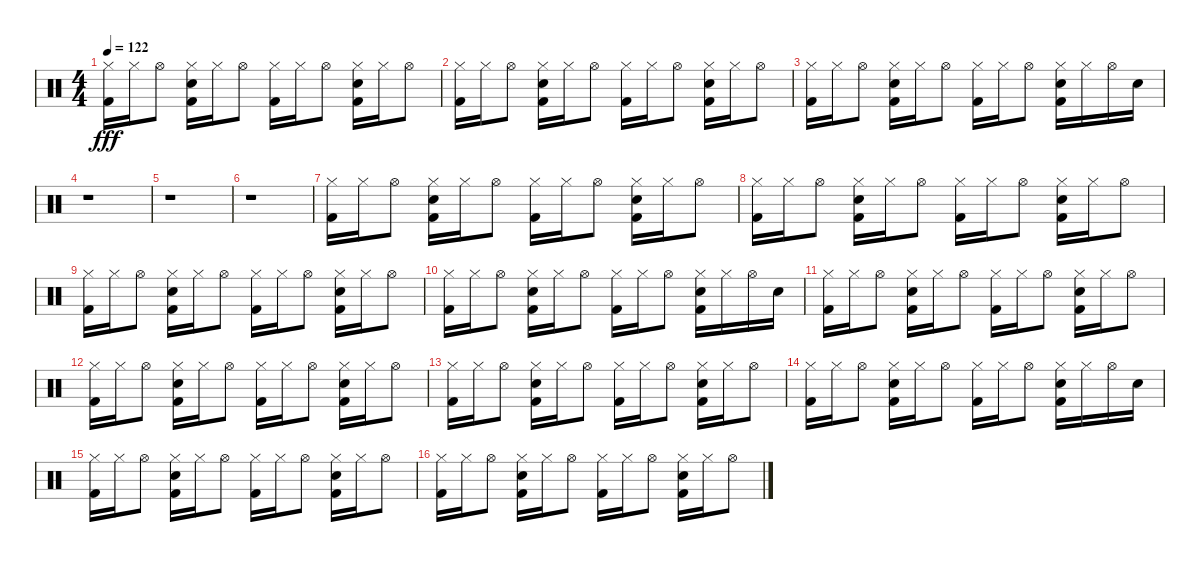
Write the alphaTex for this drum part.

\track "" {instrument percussion}
\staff {score}
\articulation defaults
\ts (4 4)
\tempo 122
\clef neutral
\ks c
("Kick (hit) 2" "Hi-Hat (closed)").16{dy fff} "Hi-Hat (closed)".16 "Hi-Hat (open)".8 ("Kick (hit) 2" "Snare (hit) 2" "Hi-Hat (closed)").16 "Hi-Hat (closed)".16 "Hi-Hat (open)".8 ("Kick (hit) 2" "Hi-Hat (closed)").16 "Hi-Hat (closed)".16 "Hi-Hat (open)".8 ("Kick (hit) 2" "Snare (hit) 2" "Hi-Hat (closed)").16 "Hi-Hat (closed)".16 "Hi-Hat (open)".8 |
("Kick (hit) 2" "Hi-Hat (closed)").16 "Hi-Hat (closed)".16 "Hi-Hat (open)".8 ("Kick (hit) 2" "Snare (hit) 2" "Hi-Hat (closed)").16 "Hi-Hat (closed)".16 "Hi-Hat (open)".8 ("Kick (hit) 2" "Hi-Hat (closed)").16 "Hi-Hat (closed)".16 "Hi-Hat (open)".8 ("Kick (hit) 2" "Snare (hit) 2" "Hi-Hat (closed)").16 "Hi-Hat (closed)".16 "Hi-Hat (open)".8 |
("Kick (hit) 2" "Hi-Hat (closed)").16 "Hi-Hat (closed)".16 "Hi-Hat (open)".8 ("Kick (hit) 2" "Snare (hit) 2" "Hi-Hat (closed)").16 "Hi-Hat (closed)".16 "Hi-Hat (open)".8 ("Kick (hit) 2" "Hi-Hat (closed)").16 "Hi-Hat (closed)".16 "Hi-Hat (open)".8 ("Kick (hit) 2" "Snare (hit) 2" "Hi-Hat (closed)").16 "Hi-Hat (closed)".16 "Hi-Hat (open)".16 "Snare (hit) 2".16 |
r.1 |
r.1 |
r.1 |
("Kick (hit) 2" "Hi-Hat (closed)").16 "Hi-Hat (closed)".16 "Hi-Hat (open)".8 ("Kick (hit) 2" "Snare (hit) 2" "Hi-Hat (closed)").16 "Hi-Hat (closed)".16 "Hi-Hat (open)".8 ("Kick (hit) 2" "Hi-Hat (closed)").16 "Hi-Hat (closed)".16 "Hi-Hat (open)".8 ("Kick (hit) 2" "Snare (hit) 2" "Hi-Hat (closed)").16 "Hi-Hat (closed)".16 "Hi-Hat (open)".8 |
("Kick (hit) 2" "Hi-Hat (closed)").16 "Hi-Hat (closed)".16 "Hi-Hat (open)".8 ("Kick (hit) 2" "Snare (hit) 2" "Hi-Hat (closed)").16 "Hi-Hat (closed)".16 "Hi-Hat (open)".8 ("Kick (hit) 2" "Hi-Hat (closed)").16 "Hi-Hat (closed)".16 "Hi-Hat (open)".8 ("Kick (hit) 2" "Snare (hit) 2" "Hi-Hat (closed)").16 "Hi-Hat (closed)".16 "Hi-Hat (open)".8 |
("Kick (hit) 2" "Hi-Hat (closed)").16 "Hi-Hat (closed)".16 "Hi-Hat (open)".8 ("Kick (hit) 2" "Snare (hit) 2" "Hi-Hat (closed)").16 "Hi-Hat (closed)".16 "Hi-Hat (open)".8 ("Kick (hit) 2" "Hi-Hat (closed)").16 "Hi-Hat (closed)".16 "Hi-Hat (open)".8 ("Kick (hit) 2" "Snare (hit) 2" "Hi-Hat (closed)").16 "Hi-Hat (closed)".16 "Hi-Hat (open)".8 |
("Kick (hit) 2" "Hi-Hat (closed)").16 "Hi-Hat (closed)".16 "Hi-Hat (open)".8 ("Kick (hit) 2" "Snare (hit) 2" "Hi-Hat (closed)").16 "Hi-Hat (closed)".16 "Hi-Hat (open)".8 ("Kick (hit) 2" "Hi-Hat (closed)").16 "Hi-Hat (closed)".16 "Hi-Hat (open)".8 ("Kick (hit) 2" "Snare (hit) 2" "Hi-Hat (closed)").16 "Hi-Hat (closed)".16 "Hi-Hat (open)".16 "Snare (hit) 2".16 |
("Kick (hit) 2" "Hi-Hat (closed)").16 "Hi-Hat (closed)".16 "Hi-Hat (open)".8 ("Kick (hit) 2" "Snare (hit) 2" "Hi-Hat (closed)").16 "Hi-Hat (closed)".16 "Hi-Hat (open)".8 ("Kick (hit) 2" "Hi-Hat (closed)").16 "Hi-Hat (closed)".16 "Hi-Hat (open)".8 ("Kick (hit) 2" "Snare (hit) 2" "Hi-Hat (closed)").16 "Hi-Hat (closed)".16 "Hi-Hat (open)".8 |
("Kick (hit) 2" "Hi-Hat (closed)").16 "Hi-Hat (closed)".16 "Hi-Hat (open)".8 ("Kick (hit) 2" "Snare (hit) 2" "Hi-Hat (closed)").16 "Hi-Hat (closed)".16 "Hi-Hat (open)".8 ("Kick (hit) 2" "Hi-Hat (closed)").16 "Hi-Hat (closed)".16 "Hi-Hat (open)".8 ("Kick (hit) 2" "Snare (hit) 2" "Hi-Hat (closed)").16 "Hi-Hat (closed)".16 "Hi-Hat (open)".8 |
("Kick (hit) 2" "Hi-Hat (closed)").16 "Hi-Hat (closed)".16 "Hi-Hat (open)".8 ("Kick (hit) 2" "Snare (hit) 2" "Hi-Hat (closed)").16 "Hi-Hat (closed)".16 "Hi-Hat (open)".8 ("Kick (hit) 2" "Hi-Hat (closed)").16 "Hi-Hat (closed)".16 "Hi-Hat (open)".8 ("Kick (hit) 2" "Snare (hit) 2" "Hi-Hat (closed)").16 "Hi-Hat (closed)".16 "Hi-Hat (open)".8 |
("Kick (hit) 2" "Hi-Hat (closed)").16 "Hi-Hat (closed)".16 "Hi-Hat (open)".8 ("Kick (hit) 2" "Snare (hit) 2" "Hi-Hat (closed)").16 "Hi-Hat (closed)".16 "Hi-Hat (open)".8 ("Kick (hit) 2" "Hi-Hat (closed)").16 "Hi-Hat (closed)".16 "Hi-Hat (open)".8 ("Kick (hit) 2" "Snare (hit) 2" "Hi-Hat (closed)").16 "Hi-Hat (closed)".16 "Hi-Hat (open)".16 "Snare (hit) 2".16 |
("Kick (hit) 2" "Hi-Hat (closed)").16 "Hi-Hat (closed)".16 "Hi-Hat (open)".8 ("Kick (hit) 2" "Snare (hit) 2" "Hi-Hat (closed)").16 "Hi-Hat (closed)".16 "Hi-Hat (open)".8 ("Kick (hit) 2" "Hi-Hat (closed)").16 "Hi-Hat (closed)".16 "Hi-Hat (open)".8 ("Kick (hit) 2" "Snare (hit) 2" "Hi-Hat (closed)").16 "Hi-Hat (closed)".16 "Hi-Hat (open)".8 |
("Kick (hit) 2" "Hi-Hat (closed)").16 "Hi-Hat (closed)".16 "Hi-Hat (open)".8 ("Kick (hit) 2" "Snare (hit) 2" "Hi-Hat (closed)").16 "Hi-Hat (closed)".16 "Hi-Hat (open)".8 ("Kick (hit) 2" "Hi-Hat (closed)").16 "Hi-Hat (closed)".16 "Hi-Hat (open)".8 ("Kick (hit) 2" "Snare (hit) 2" "Hi-Hat (closed)").16 "Hi-Hat (closed)".16 "Hi-Hat (open)".8
